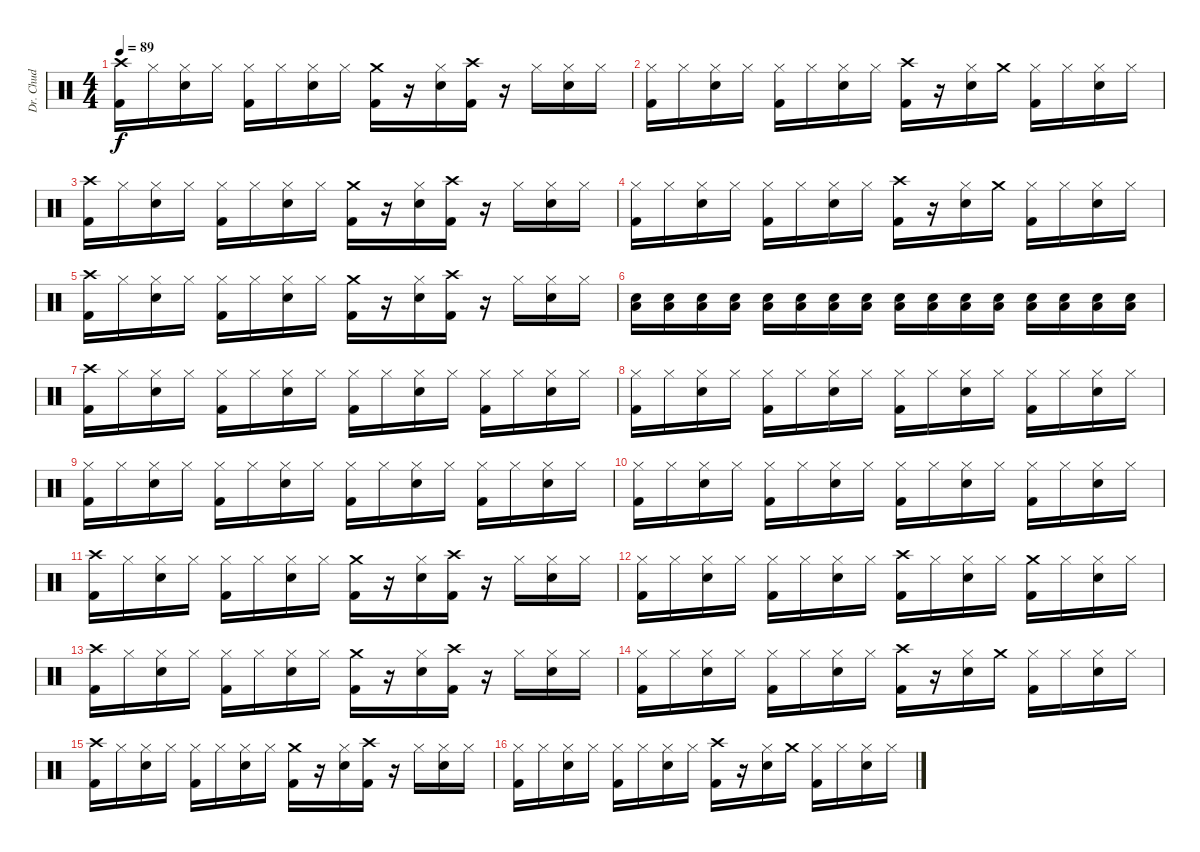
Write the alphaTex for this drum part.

\track ("Dr. Chud" "Dr. Chud") {instrument percussion}
\staff {score}
\articulation defaults
\ts (4 4)
\tempo 89
\clef neutral
\ks c
("Crash high (hit)" "Kick (hit) 2").16{dy f} "Hi-Hat (closed)".16 ("Hi-Hat (closed)" "Snare (hit) 2").16 "Hi-Hat (closed)".16 ("Hi-Hat (closed)" "Kick (hit) 2").16 "Hi-Hat (closed)".16 ("Hi-Hat (closed)" "Snare (hit) 2").16 "Hi-Hat (closed)".16 ("Crash medium (hit)" "Kick (hit) 2").16 r.16 ("Hi-Hat (closed)" "Snare (hit) 2").16 ("Crash high (hit)" "Kick (hit) 2").16 r.16 "Hi-Hat (closed)".16 ("Hi-Hat (closed)" "Snare (hit) 2").16 "Hi-Hat (closed)".16 |
("Hi-Hat (closed)" "Kick (hit) 2").16 "Hi-Hat (closed)".16 ("Hi-Hat (closed)" "Snare (hit) 2").16 "Hi-Hat (closed)".16 ("Hi-Hat (closed)" "Kick (hit) 2").16 "Hi-Hat (closed)".16 ("Hi-Hat (closed)" "Snare (hit) 2").16 "Hi-Hat (closed)".16 ("Crash high (hit)" "Kick (hit) 2").16 r.16 ("Hi-Hat (closed)" "Snare (hit) 2").16 "Crash medium (hit)".16 ("Hi-Hat (closed)" "Kick (hit) 2").16 "Hi-Hat (closed)".16 ("Hi-Hat (closed)" "Snare (hit) 2").16 "Hi-Hat (closed)".16 |
("Crash high (hit)" "Kick (hit) 2").16 "Hi-Hat (closed)".16 ("Hi-Hat (closed)" "Snare (hit) 2").16 "Hi-Hat (closed)".16 ("Hi-Hat (closed)" "Kick (hit) 2").16 "Hi-Hat (closed)".16 ("Hi-Hat (closed)" "Snare (hit) 2").16 "Hi-Hat (closed)".16 ("Crash medium (hit)" "Kick (hit) 2").16 r.16 ("Hi-Hat (closed)" "Snare (hit) 2").16 ("Crash high (hit)" "Kick (hit) 2").16 r.16 "Hi-Hat (closed)".16 ("Hi-Hat (closed)" "Snare (hit) 2").16 "Hi-Hat (closed)".16 |
("Hi-Hat (closed)" "Kick (hit) 2").16 "Hi-Hat (closed)".16 ("Hi-Hat (closed)" "Snare (hit) 2").16 "Hi-Hat (closed)".16 ("Hi-Hat (closed)" "Kick (hit) 2").16 "Hi-Hat (closed)".16 ("Hi-Hat (closed)" "Snare (hit) 2").16 "Hi-Hat (closed)".16 ("Crash high (hit)" "Kick (hit) 2").16 r.16 ("Hi-Hat (closed)" "Snare (hit) 2").16 "Crash medium (hit)".16 ("Hi-Hat (closed)" "Kick (hit) 2").16 "Hi-Hat (closed)".16 ("Hi-Hat (closed)" "Snare (hit) 2").16 "Hi-Hat (closed)".16 |
("Crash high (hit)" "Kick (hit) 2").16 "Hi-Hat (closed)".16 ("Hi-Hat (closed)" "Snare (hit) 2").16 "Hi-Hat (closed)".16 ("Hi-Hat (closed)" "Kick (hit) 2").16 "Hi-Hat (closed)".16 ("Hi-Hat (closed)" "Snare (hit) 2").16 "Hi-Hat (closed)".16 ("Crash medium (hit)" "Kick (hit) 2").16 r.16 ("Hi-Hat (closed)" "Snare (hit) 2").16 ("Crash high (hit)" "Kick (hit) 2").16 r.16 "Hi-Hat (closed)".16 ("Hi-Hat (closed)" "Snare (hit) 2").16 "Hi-Hat (closed)".16 |
("Snare (hit) 2" "Low Floor Tom (hit)").16 ("Snare (hit) 2" "Low Floor Tom (hit)").16 ("Snare (hit) 2" "Low Floor Tom (hit)").16 ("Snare (hit) 2" "Low Floor Tom (hit)").16 ("Snare (hit) 2" "Low Floor Tom (hit)").16 ("Snare (hit) 2" "Low Floor Tom (hit)").16 ("Snare (hit) 2" "Low Floor Tom (hit)").16 ("Snare (hit) 2" "Low Floor Tom (hit)").16 ("Snare (hit) 2" "Low Floor Tom (hit)").16 ("Snare (hit) 2" "Low Floor Tom (hit)").16 ("Snare (hit) 2" "Low Floor Tom (hit)").16 ("Snare (hit) 2" "Low Floor Tom (hit)").16 ("Snare (hit) 2" "Low Floor Tom (hit)").16 ("Snare (hit) 2" "Low Floor Tom (hit)").16 ("Snare (hit) 2" "Low Floor Tom (hit)").16 ("Snare (hit) 2" "Low Floor Tom (hit)").16 |
("Crash high (hit)" "Kick (hit) 2").16 "Hi-Hat (closed)".16 ("Hi-Hat (closed)" "Snare (hit) 2").16 "Hi-Hat (closed)".16 ("Hi-Hat (closed)" "Kick (hit) 2").16 "Hi-Hat (closed)".16 ("Hi-Hat (closed)" "Snare (hit) 2").16 "Hi-Hat (closed)".16 ("Hi-Hat (closed)" "Kick (hit) 2").16 "Hi-Hat (closed)".16 ("Hi-Hat (closed)" "Snare (hit) 2").16 "Hi-Hat (closed)".16 ("Hi-Hat (closed)" "Kick (hit) 2").16 "Hi-Hat (closed)".16 ("Hi-Hat (closed)" "Snare (hit) 2").16 "Hi-Hat (closed)".16 |
("Hi-Hat (closed)" "Kick (hit) 2").16 "Hi-Hat (closed)".16 ("Hi-Hat (closed)" "Snare (hit) 2").16 "Hi-Hat (closed)".16 ("Hi-Hat (closed)" "Kick (hit) 2").16 "Hi-Hat (closed)".16 ("Hi-Hat (closed)" "Snare (hit) 2").16 "Hi-Hat (closed)".16 ("Hi-Hat (closed)" "Kick (hit) 2").16 "Hi-Hat (closed)".16 ("Hi-Hat (closed)" "Snare (hit) 2").16 "Hi-Hat (closed)".16 ("Hi-Hat (closed)" "Kick (hit) 2").16 "Hi-Hat (closed)".16 ("Hi-Hat (closed)" "Snare (hit) 2").16 "Hi-Hat (closed)".16 |
("Hi-Hat (closed)" "Kick (hit) 2").16 "Hi-Hat (closed)".16 ("Hi-Hat (closed)" "Snare (hit) 2").16 "Hi-Hat (closed)".16 ("Hi-Hat (closed)" "Kick (hit) 2").16 "Hi-Hat (closed)".16 ("Hi-Hat (closed)" "Snare (hit) 2").16 "Hi-Hat (closed)".16 ("Hi-Hat (closed)" "Kick (hit) 2").16 "Hi-Hat (closed)".16 ("Hi-Hat (closed)" "Snare (hit) 2").16 "Hi-Hat (closed)".16 ("Hi-Hat (closed)" "Kick (hit) 2").16 "Hi-Hat (closed)".16 ("Hi-Hat (closed)" "Snare (hit) 2").16 "Hi-Hat (closed)".16 |
("Hi-Hat (closed)" "Kick (hit) 2").16 "Hi-Hat (closed)".16 ("Hi-Hat (closed)" "Snare (hit) 2").16 "Hi-Hat (closed)".16 ("Hi-Hat (closed)" "Kick (hit) 2").16 "Hi-Hat (closed)".16 ("Hi-Hat (closed)" "Snare (hit) 2").16 "Hi-Hat (closed)".16 ("Hi-Hat (closed)" "Kick (hit) 2").16 "Hi-Hat (closed)".16 ("Hi-Hat (closed)" "Snare (hit) 2").16 "Hi-Hat (closed)".16 ("Hi-Hat (closed)" "Kick (hit) 2").16 "Hi-Hat (closed)".16 ("Hi-Hat (closed)" "Snare (hit) 2").16 "Hi-Hat (closed)".16 |
("Crash high (hit)" "Kick (hit) 2").16 "Hi-Hat (closed)".16 ("Hi-Hat (closed)" "Snare (hit) 2").16 "Hi-Hat (closed)".16 ("Hi-Hat (closed)" "Kick (hit) 2").16 "Hi-Hat (closed)".16 ("Hi-Hat (closed)" "Snare (hit) 2").16 "Hi-Hat (closed)".16 ("Crash medium (hit)" "Kick (hit) 2").16 r.16 ("Hi-Hat (closed)" "Snare (hit) 2").16 ("Crash high (hit)" "Kick (hit) 2").16 r.16 "Hi-Hat (closed)".16 ("Hi-Hat (closed)" "Snare (hit) 2").16 "Hi-Hat (closed)".16 |
("Hi-Hat (closed)" "Kick (hit) 2").16 "Hi-Hat (closed)".16 ("Hi-Hat (closed)" "Snare (hit) 2").16 "Hi-Hat (closed)".16 ("Hi-Hat (closed)" "Kick (hit) 2").16 "Hi-Hat (closed)".16 ("Hi-Hat (closed)" "Snare (hit) 2").16 "Hi-Hat (closed)".16 ("Crash high (hit)" "Kick (hit) 2").16 "Hi-Hat (closed)".16 ("Hi-Hat (closed)" "Snare (hit) 2").16 "Hi-Hat (closed)".16 ("Crash medium (hit)" "Kick (hit) 2").16 "Hi-Hat (closed)".16 ("Hi-Hat (closed)" "Snare (hit) 2").16 "Hi-Hat (closed)".16 |
("Crash high (hit)" "Kick (hit) 2").16 "Hi-Hat (closed)".16 ("Hi-Hat (closed)" "Snare (hit) 2").16 "Hi-Hat (closed)".16 ("Hi-Hat (closed)" "Kick (hit) 2").16 "Hi-Hat (closed)".16 ("Hi-Hat (closed)" "Snare (hit) 2").16 "Hi-Hat (closed)".16 ("Crash medium (hit)" "Kick (hit) 2").16 r.16 ("Hi-Hat (closed)" "Snare (hit) 2").16 ("Crash high (hit)" "Kick (hit) 2").16 r.16 "Hi-Hat (closed)".16 ("Hi-Hat (closed)" "Snare (hit) 2").16 "Hi-Hat (closed)".16 |
("Hi-Hat (closed)" "Kick (hit) 2").16 "Hi-Hat (closed)".16 ("Hi-Hat (closed)" "Snare (hit) 2").16 "Hi-Hat (closed)".16 ("Hi-Hat (closed)" "Kick (hit) 2").16 "Hi-Hat (closed)".16 ("Hi-Hat (closed)" "Snare (hit) 2").16 "Hi-Hat (closed)".16 ("Crash high (hit)" "Kick (hit) 2").16 r.16 ("Hi-Hat (closed)" "Snare (hit) 2").16 "Crash medium (hit)".16 ("Hi-Hat (closed)" "Kick (hit) 2").16 "Hi-Hat (closed)".16 ("Hi-Hat (closed)" "Snare (hit) 2").16 "Hi-Hat (closed)".16 |
("Crash high (hit)" "Kick (hit) 2").16 "Hi-Hat (closed)".16 ("Hi-Hat (closed)" "Snare (hit) 2").16 "Hi-Hat (closed)".16 ("Hi-Hat (closed)" "Kick (hit) 2").16 "Hi-Hat (closed)".16 ("Hi-Hat (closed)" "Snare (hit) 2").16 "Hi-Hat (closed)".16 ("Crash medium (hit)" "Kick (hit) 2").16 r.16 ("Hi-Hat (closed)" "Snare (hit) 2").16 ("Crash high (hit)" "Kick (hit) 2").16 r.16 "Hi-Hat (closed)".16 ("Hi-Hat (closed)" "Snare (hit) 2").16 "Hi-Hat (closed)".16 |
("Hi-Hat (closed)" "Kick (hit) 2").16 "Hi-Hat (closed)".16 ("Hi-Hat (closed)" "Snare (hit) 2").16 "Hi-Hat (closed)".16 ("Hi-Hat (closed)" "Kick (hit) 2").16 "Hi-Hat (closed)".16 ("Hi-Hat (closed)" "Snare (hit) 2").16 "Hi-Hat (closed)".16 ("Crash high (hit)" "Kick (hit) 2").16 r.16 ("Hi-Hat (closed)" "Snare (hit) 2").16 "Crash medium (hit)".16 ("Hi-Hat (closed)" "Kick (hit) 2").16 "Hi-Hat (closed)".16 ("Hi-Hat (closed)" "Snare (hit) 2").16 "Hi-Hat (closed)".16
